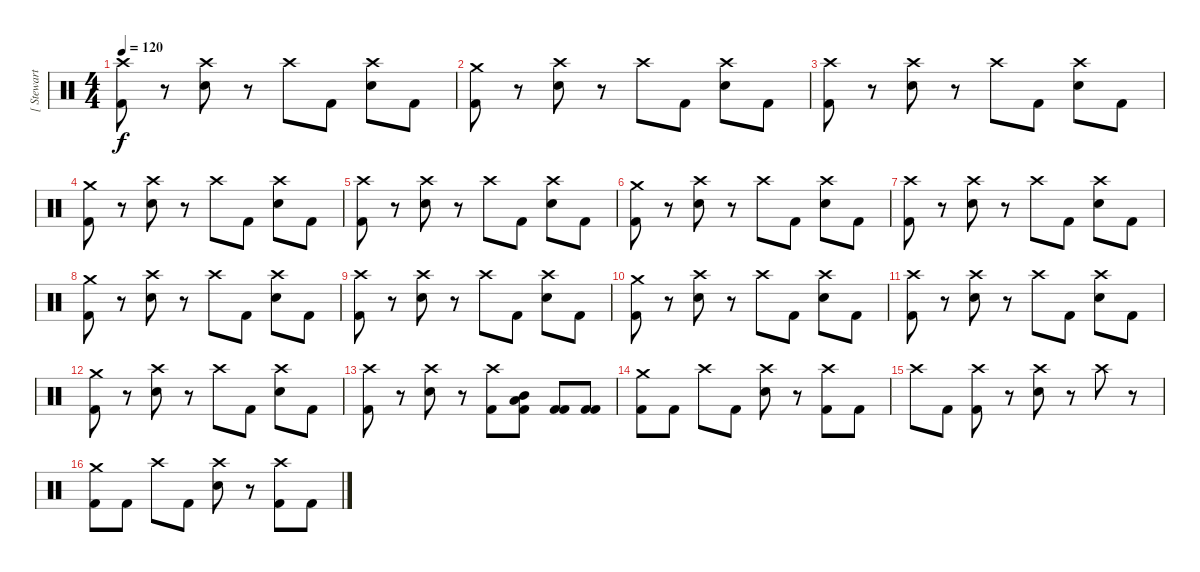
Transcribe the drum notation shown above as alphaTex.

\track ("[ Stewart ] " "[ Stewart ") {instrument percussion}
\staff {score}
\articulation defaults
\ts (4 4)
\tempo 120
\clef neutral
\ks c
("Kick (hit) 2" "Crash high (hit)").8{dy f} r.8 ("Electric Snare (hit)" "Crash high (hit)").8 r.8 "Crash high (hit)".8 "Kick (hit) 2".8 ("Electric Snare (hit)" "Crash high (hit)").8 "Kick (hit) 2".8 |
("Kick (hit) 2" "Crash medium (hit)").8 r.8 ("Electric Snare (hit)" "Crash high (hit)").8 r.8 "Crash high (hit)".8 "Kick (hit) 2".8 ("Electric Snare (hit)" "Crash high (hit)").8 "Kick (hit) 2".8 |
("Kick (hit) 2" "Crash high (hit)").8 r.8 ("Electric Snare (hit)" "Crash high (hit)").8 r.8 "Crash high (hit)".8 "Kick (hit) 2".8 ("Electric Snare (hit)" "Crash high (hit)").8 "Kick (hit) 2".8 |
("Kick (hit) 2" "Crash medium (hit)").8 r.8 ("Electric Snare (hit)" "Crash high (hit)").8 r.8 "Crash high (hit)".8 "Kick (hit) 2".8 ("Electric Snare (hit)" "Crash high (hit)").8 "Kick (hit) 2".8 |
("Kick (hit) 2" "Crash high (hit)").8 r.8 ("Electric Snare (hit)" "Crash high (hit)").8 r.8 "Crash high (hit)".8 "Kick (hit) 2".8 ("Electric Snare (hit)" "Crash high (hit)").8 "Kick (hit) 2".8 |
("Kick (hit) 2" "Crash medium (hit)").8 r.8 ("Electric Snare (hit)" "Crash high (hit)").8 r.8 "Crash high (hit)".8 "Kick (hit) 2".8 ("Electric Snare (hit)" "Crash high (hit)").8 "Kick (hit) 2".8 |
("Kick (hit) 2" "Crash high (hit)").8 r.8 ("Electric Snare (hit)" "Crash high (hit)").8 r.8 "Crash high (hit)".8 "Kick (hit) 2".8 ("Electric Snare (hit)" "Crash high (hit)").8 "Kick (hit) 2".8 |
("Kick (hit) 2" "Crash medium (hit)").8 r.8 ("Electric Snare (hit)" "Crash high (hit)").8 r.8 "Crash high (hit)".8 "Kick (hit) 2".8 ("Electric Snare (hit)" "Crash high (hit)").8 "Kick (hit) 2".8 |
("Kick (hit) 2" "Crash high (hit)").8 r.8 ("Electric Snare (hit)" "Crash high (hit)").8 r.8 "Crash high (hit)".8 "Kick (hit) 2".8 ("Electric Snare (hit)" "Crash high (hit)").8 "Kick (hit) 2".8 |
("Kick (hit) 2" "Crash medium (hit)").8 r.8 ("Electric Snare (hit)" "Crash high (hit)").8 r.8 "Crash high (hit)".8 "Kick (hit) 2".8 ("Electric Snare (hit)" "Crash high (hit)").8 "Kick (hit) 2".8 |
("Kick (hit) 2" "Crash high (hit)").8 r.8 ("Electric Snare (hit)" "Crash high (hit)").8 r.8 "Crash high (hit)".8 "Kick (hit) 2".8 ("Electric Snare (hit)" "Crash high (hit)").8 "Kick (hit) 2".8 |
("Kick (hit) 2" "Crash medium (hit)").8 r.8 ("Electric Snare (hit)" "Crash high (hit)").8 r.8 "Crash high (hit)".8 "Kick (hit) 2".8 ("Electric Snare (hit)" "Crash high (hit)").8 "Kick (hit) 2".8 |
("Kick (hit) 2" "Crash high (hit)").8 r.8 ("Electric Snare (hit)" "Crash high (hit)").8 r.8 ("Kick (hit) 2" "Crash high (hit)").8 ("Kick (hit) 2" "Low Tom (hit)" "Mid Tom (hit)").8 ("Kick (hit) 2" "Kick (hit) 2").8 ("Kick (hit) 2" "Kick (hit) 2").8 |
("Kick (hit) 2" "Crash medium (hit)").8 "Kick (hit) 2".8 "Crash high (hit)".8 "Kick (hit) 2".8 ("Electric Snare (hit)" "Crash high (hit)").8 r.8 ("Kick (hit) 2" "Crash high (hit)").8 "Kick (hit) 2".8 |
"Crash high (hit)".8 "Kick (hit) 2".8 ("Kick (hit) 2" "Crash high (hit)").8 r.8 ("Electric Snare (hit)" "Crash high (hit)").8 r.8 "Crash high (hit)".8 r.8 |
("Kick (hit) 2" "Crash medium (hit)").8 "Kick (hit) 2".8 "Crash high (hit)".8 "Kick (hit) 2".8 ("Electric Snare (hit)" "Crash high (hit)").8 r.8 ("Kick (hit) 2" "Crash high (hit)").8 "Kick (hit) 2".8
